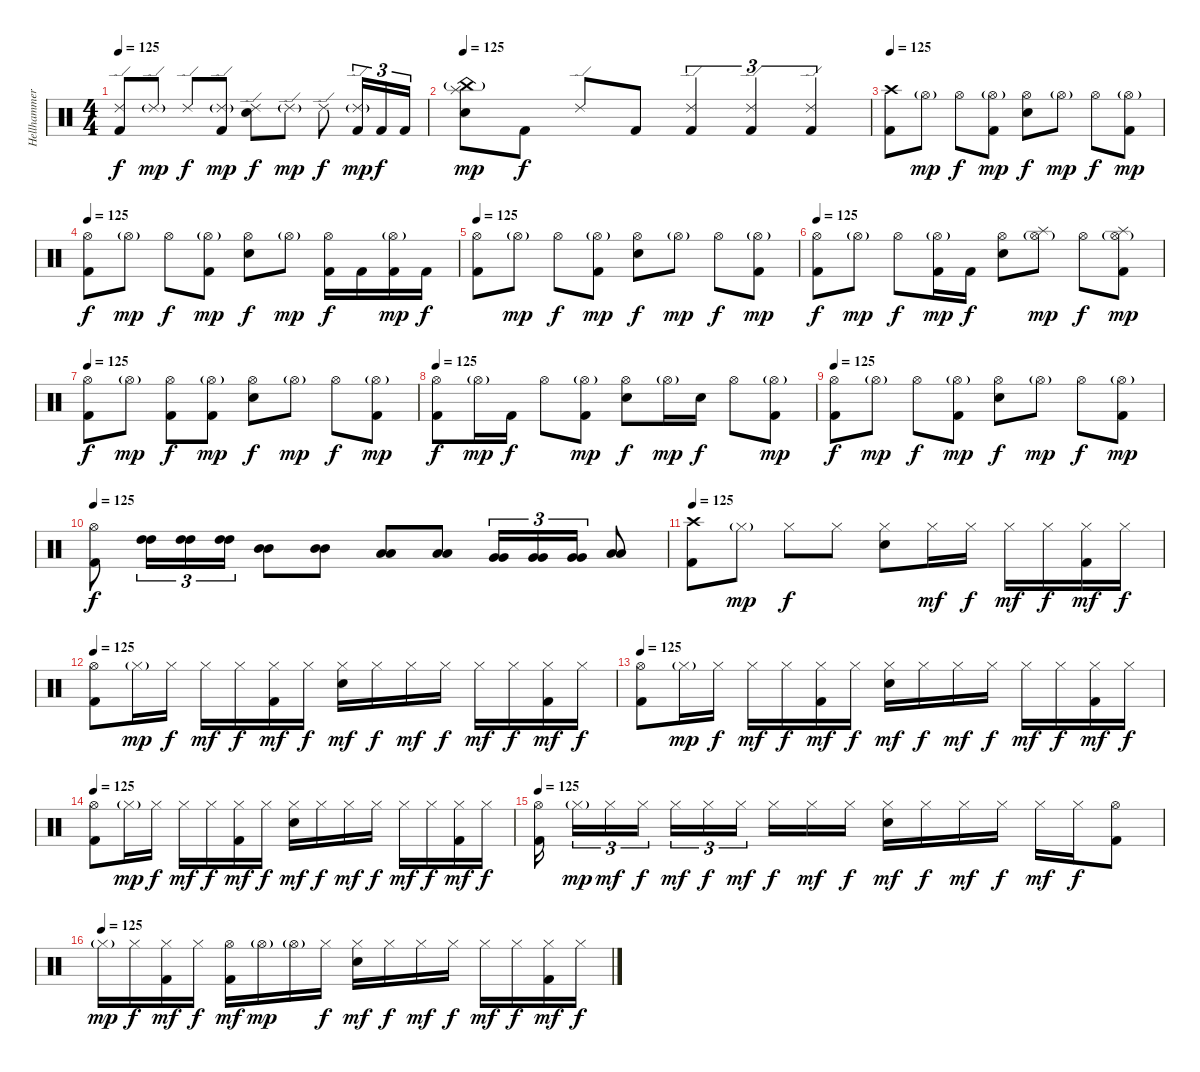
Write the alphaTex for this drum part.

\track ("Hellhammer" "Hellhammer") {instrument percussion}
\staff {score}
\articulation defaults
\ts (4 4)
\tempo 125
\clef neutral
\ks c
("Kick (hit) 2" "Ride (edge) 2").8{dy f} "Ride (edge) 2"{g}.8{dy mp} "Ride (edge) 2".8{dy f} ("Kick (hit) 2" "Ride (edge) 2"{g}).8{dy mp} ("Electric Snare (hit)" "Ride (edge) 2").8{dy f} "Ride (edge) 2"{g}.8{dy mp} "Ride (edge) 2".8{dy f} ("Kick (hit) 2" "Ride (edge) 2"{g}).16{tu (3 2) dy mp} "Kick (hit) 2".16{tu (3 2) dy f} "Kick (hit) 2".16{tu (3 2)} |
\tempo 125
("Electric Snare (hit)" "Splash (hit)" "China (hit)"{g}).8{dy mp} "Kick (hit) 2".8{dy f} "Ride (edge) 2".8 "Kick (hit) 2".8 ("Kick (hit) 2" "Ride (edge) 2").4{tu (3 2)} ("Kick (hit) 2" "Ride (edge) 2").4{tu (3 2)} ("Kick (hit) 2" "Ride (edge) 2").4{tu (3 2)} |
\tempo 125
("Kick (hit) 2" "Crash high (hit)").8 "Hi-Hat (open)"{g}.8{dy mp} "Hi-Hat (open)".8{dy f} ("Kick (hit) 2" "Hi-Hat (open)"{g}).8{dy mp} ("Electric Snare (hit)" "Hi-Hat (open)").8{dy f} "Hi-Hat (open)"{g}.8{dy mp} "Hi-Hat (open)".8{dy f} ("Kick (hit) 2" "Hi-Hat (open)"{g}).8{dy mp} |
\tempo 125
("Kick (hit) 2" "Hi-Hat (open)").8{dy f} "Hi-Hat (open)"{g}.8{dy mp} "Hi-Hat (open)".8{dy f} ("Kick (hit) 2" "Hi-Hat (open)"{g}).8{dy mp} ("Electric Snare (hit)" "Hi-Hat (open)").8{dy f} "Hi-Hat (open)"{g}.8{dy mp} ("Kick (hit) 2" "Hi-Hat (open)").16{dy f} "Kick (hit) 2".16 ("Kick (hit) 2" "Hi-Hat (open)"{g}).16{dy mp} "Kick (hit) 2".16{dy f} |
\tempo 125
("Kick (hit) 2" "Hi-Hat (open)").8 "Hi-Hat (open)"{g}.8{dy mp} "Hi-Hat (open)".8{dy f} ("Kick (hit) 2" "Hi-Hat (open)"{g}).8{dy mp} ("Electric Snare (hit)" "Hi-Hat (open)").8{dy f} "Hi-Hat (open)"{g}.8{dy mp} "Hi-Hat (open)".8{dy f} ("Kick (hit) 2" "Hi-Hat (open)"{g}).8{dy mp} |
\tempo 125
("Kick (hit) 2" "Hi-Hat (open)").8{dy f} "Hi-Hat (open)"{g}.8{dy mp} "Hi-Hat (open)".8{dy f} ("Kick (hit) 2" "Hi-Hat (open)"{g}).16{dy mp} "Kick (hit) 2".16{dy f} ("Electric Snare (hit)" "Hi-Hat (open)").8 ("Hi-Hat (open)"{g} "Splash (hit)").8{dy mp} "Hi-Hat (open)".8{dy f} ("Kick (hit) 2" "Hi-Hat (open)"{g} "Splash (hit)").8{dy mp} |
\tempo 125
("Kick (hit) 2" "Hi-Hat (open)").8{dy f} "Hi-Hat (open)"{g}.8{dy mp} ("Kick (hit) 2" "Hi-Hat (open)").8{dy f} ("Kick (hit) 2" "Hi-Hat (open)"{g}).8{dy mp} ("Electric Snare (hit)" "Hi-Hat (open)").8{dy f} "Hi-Hat (open)"{g}.8{dy mp} "Hi-Hat (open)".8{dy f} ("Kick (hit) 2" "Hi-Hat (open)"{g}).8{dy mp} |
\tempo 125
("Kick (hit) 2" "Hi-Hat (open)").8{dy f} "Hi-Hat (open)"{g}.16{dy mp} "Kick (hit) 2".16{dy f} "Hi-Hat (open)".8 ("Kick (hit) 2" "Hi-Hat (open)"{g}).8{dy mp} ("Electric Snare (hit)" "Hi-Hat (open)").8{dy f} "Hi-Hat (open)"{g}.16{dy mp} "Electric Snare (hit)".16{dy f} "Hi-Hat (open)".8 ("Kick (hit) 2" "Hi-Hat (open)"{g}).8{dy mp} |
\tempo 125
("Kick (hit) 2" "Hi-Hat (open)").8{dy f} "Hi-Hat (open)"{g}.8{dy mp} "Hi-Hat (open)".8{dy f} ("Kick (hit) 2" "Hi-Hat (open)"{g}).8{dy mp} ("Electric Snare (hit)" "Hi-Hat (open)").8{dy f} "Hi-Hat (open)"{g}.8{dy mp} "Hi-Hat (open)".8{dy f} ("Kick (hit) 2" "Hi-Hat (open)"{g}).8{dy mp} |
\tempo 125
("Kick (hit) 2" "Hi-Hat (open)").8{dy f} ("High Tom (hit)" "High Tom (hit)").16{tu (3 2)} ("High Tom (hit)" "High Tom (hit)").16{tu (3 2)} ("High Tom (hit)" "High Tom (hit)").16{tu (3 2)} ("Mid Tom (hit)" "Mid Tom (hit)").8 ("Mid Tom (hit)" "Mid Tom (hit)").8 ("Low Tom (hit)" "Low Tom (hit)").8 ("Low Tom (hit)" "Low Tom (hit)").8 ("Very Low Tom (hit)" "Very Low Tom (hit)").16{tu (3 2)} ("Very Low Tom (hit)" "Very Low Tom (hit)").16{tu (3 2)} ("Very Low Tom (hit)" "Very Low Tom (hit)").16{tu (3 2)} ("Low Floor Tom (hit)" "Low Floor Tom (hit)").8 |
\tempo 125
("Kick (hit) 2" "Crash high (hit)").8 "Hi-Hat (closed)"{g}.8{dy mp} "Hi-Hat (closed)".8{dy f} "Hi-Hat (closed)".8 ("Electric Snare (hit)" "Hi-Hat (closed)").8 "Hi-Hat (closed)".16{dy mf} "Hi-Hat (closed)".16{dy f} "Hi-Hat (closed)".16{dy mf} "Hi-Hat (closed)".16{dy f} ("Kick (hit) 2" "Hi-Hat (closed)").16{dy mf} "Hi-Hat (closed)".16{dy f} |
\tempo 125
("Kick (hit) 2" "Hi-Hat (open)").8 "Hi-Hat (closed)"{g}.16{dy mp} "Hi-Hat (closed)".16{dy f} "Hi-Hat (closed)".16{dy mf} "Hi-Hat (closed)".16{dy f} ("Kick (hit) 2" "Hi-Hat (closed)").16{dy mf} "Hi-Hat (closed)".16{dy f} ("Electric Snare (hit)" "Hi-Hat (closed)").16{dy mf} "Hi-Hat (closed)".16{dy f} "Hi-Hat (closed)".16{dy mf} "Hi-Hat (closed)".16{dy f} "Hi-Hat (closed)".16{dy mf} "Hi-Hat (closed)".16{dy f} ("Kick (hit) 2" "Hi-Hat (closed)").16{dy mf} "Hi-Hat (closed)".16{dy f} |
\tempo 125
("Kick (hit) 2" "Hi-Hat (open)").8 "Hi-Hat (closed)"{g}.16{dy mp} "Hi-Hat (closed)".16{dy f} "Hi-Hat (closed)".16{dy mf} "Hi-Hat (closed)".16{dy f} ("Kick (hit) 2" "Hi-Hat (closed)").16{dy mf} "Hi-Hat (closed)".16{dy f} ("Electric Snare (hit)" "Hi-Hat (closed)").16{dy mf} "Hi-Hat (closed)".16{dy f} "Hi-Hat (closed)".16{dy mf} "Hi-Hat (closed)".16{dy f} "Hi-Hat (closed)".16{dy mf} "Hi-Hat (closed)".16{dy f} ("Kick (hit) 2" "Hi-Hat (closed)").16{dy mf} "Hi-Hat (closed)".16{dy f} |
\tempo 125
("Kick (hit) 2" "Hi-Hat (open)").8 "Hi-Hat (closed)"{g}.16{dy mp} "Hi-Hat (closed)".16{dy f} "Hi-Hat (closed)".16{dy mf} "Hi-Hat (closed)".16{dy f} ("Kick (hit) 2" "Hi-Hat (closed)").16{dy mf} "Hi-Hat (closed)".16{dy f} ("Electric Snare (hit)" "Hi-Hat (closed)").16{dy mf} "Hi-Hat (closed)".16{dy f} "Hi-Hat (closed)".16{dy mf} "Hi-Hat (closed)".16{dy f} "Hi-Hat (closed)".16{dy mf} "Hi-Hat (closed)".16{dy f} ("Kick (hit) 2" "Hi-Hat (closed)").16{dy mf} "Hi-Hat (closed)".16{dy f} |
\tempo 125
("Kick (hit) 2" "Hi-Hat (open)").16 "Hi-Hat (closed)"{g}.16{tu (3 2) dy mp} "Hi-Hat (closed)".16{tu (3 2) dy mf} "Hi-Hat (closed)".16{tu (3 2) dy f} "Hi-Hat (closed)".16{tu (3 2) dy mf} "Hi-Hat (closed)".16{tu (3 2) dy f} "Hi-Hat (closed)".16{tu (3 2) dy mf} "Hi-Hat (closed)".16{dy f} "Hi-Hat (closed)".16{dy mf} "Hi-Hat (closed)".16{dy f} ("Electric Snare (hit)" "Hi-Hat (closed)").16{dy mf} "Hi-Hat (closed)".16{dy f} "Hi-Hat (closed)".16{dy mf} "Hi-Hat (closed)".16{dy f} "Hi-Hat (closed)".16{dy mf} "Hi-Hat (closed)".16{dy f} ("Kick (hit) 2" "Hi-Hat (open)").8 |
\tempo (125)
"Hi-Hat (closed)"{g}.16{dy mp} "Hi-Hat (closed)".16{dy f} ("Kick (hit) 2" "Hi-Hat (closed)").16{dy mf} "Hi-Hat (closed)".16{dy f} ("Kick (hit) 2" "Hi-Hat (open)").16{dy mf} "Hi-Hat (open)"{g}.16{dy mp} "Hi-Hat (open)"{g}.16 "Hi-Hat (closed)".16{dy f} ("Electric Snare (hit)" "Hi-Hat (closed)").16{dy mf} "Hi-Hat (closed)".16{dy f} "Hi-Hat (closed)".16{dy mf} "Hi-Hat (closed)".16{dy f} "Hi-Hat (closed)".16{dy mf} "Hi-Hat (closed)".16{dy f} ("Kick (hit) 2" "Hi-Hat (closed)").16{dy mf} "Hi-Hat (closed)".16{dy f}
